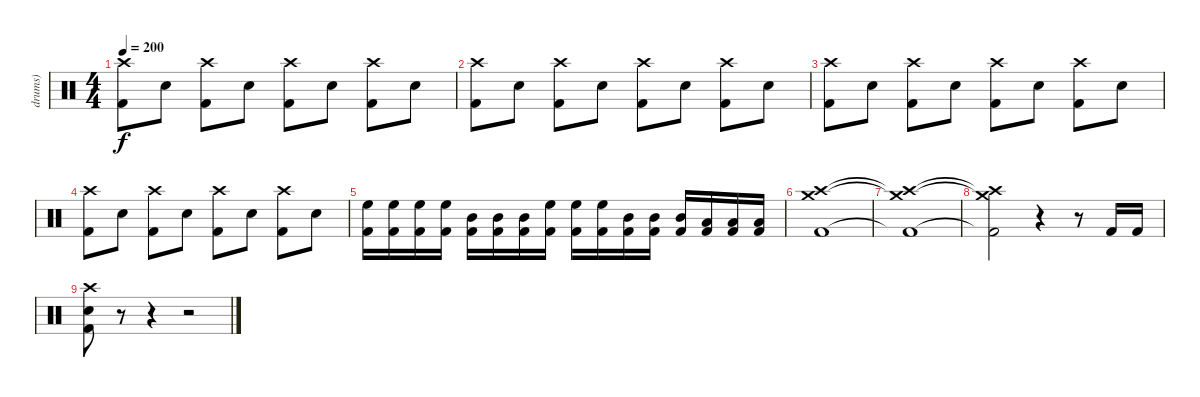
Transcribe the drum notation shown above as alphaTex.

\track ("drums)" "drums)") {instrument percussion}
\staff {score}
\articulation defaults
\ts (4 4)
\tempo 200
\clef neutral
\ks c
("Crash high (hit)" "Kick (hit) 2").8{dy f} "Electric Snare (hit)".8 ("Crash high (hit)" "Kick (hit) 2").8 "Electric Snare (hit)".8 ("Crash high (hit)" "Kick (hit) 2").8 "Electric Snare (hit)".8 ("Crash high (hit)" "Kick (hit) 2").8 "Electric Snare (hit)".8 |
("Crash high (hit)" "Kick (hit) 2").8 "Electric Snare (hit)".8 ("Crash high (hit)" "Kick (hit) 2").8 "Electric Snare (hit)".8 ("Crash high (hit)" "Kick (hit) 2").8 "Electric Snare (hit)".8 ("Crash high (hit)" "Kick (hit) 2").8 "Electric Snare (hit)".8 |
("Crash high (hit)" "Kick (hit) 2").8 "Electric Snare (hit)".8 ("Crash high (hit)" "Kick (hit) 2").8 "Electric Snare (hit)".8 ("Crash high (hit)" "Kick (hit) 2").8 "Electric Snare (hit)".8 ("Crash high (hit)" "Kick (hit) 2").8 "Electric Snare (hit)".8 |
("Crash high (hit)" "Kick (hit) 2").8 "Electric Snare (hit)".8 ("Crash high (hit)" "Kick (hit) 2").8 "Electric Snare (hit)".8 ("Crash high (hit)" "Kick (hit) 2").8 "Electric Snare (hit)".8 ("Crash high (hit)" "Kick (hit) 2").8 "Electric Snare (hit)".8 |
("High Floor Tom (hit)" "Kick (hit) 2").16 ("High Floor Tom (hit)" "Kick (hit) 2").16 ("High Floor Tom (hit)" "Kick (hit) 2").16 ("High Floor Tom (hit)" "Kick (hit) 2").16 ("Mid Tom (hit)" "Kick (hit) 2").16 ("Mid Tom (hit)" "Kick (hit) 2").16 ("Mid Tom (hit)" "Kick (hit) 2").16 ("High Floor Tom (hit)" "Kick (hit) 2").16 ("High Floor Tom (hit)" "Kick (hit) 2").16 ("High Floor Tom (hit)" "Kick (hit) 2").16 ("Mid Tom (hit)" "Kick (hit) 2").16 ("Mid Tom (hit)" "Kick (hit) 2").16 ("Mid Tom (hit)" "Kick (hit) 2").16 ("Low Floor Tom (hit)" "Kick (hit) 2").16 ("Low Floor Tom (hit)" "Kick (hit) 2").16 ("Low Floor Tom (hit)" "Kick (hit) 2").16 |
("Crash medium (hit)" "Crash high (hit)" "Kick (hit) 2").1 |
("Crash medium (hit)"{t} "Crash high (hit)"{t} "Kick (hit) 2"{t}).1 |
("Crash medium (hit)"{t} "Crash high (hit)"{t} "Kick (hit) 2"{t}).2 r.4 r.8 "Kick (hit) 2".16 "Kick (hit) 2".16 |
("Crash high (hit)" "Electric Snare (hit)" "Kick (hit) 2").8 r.8 r.4 r.2
